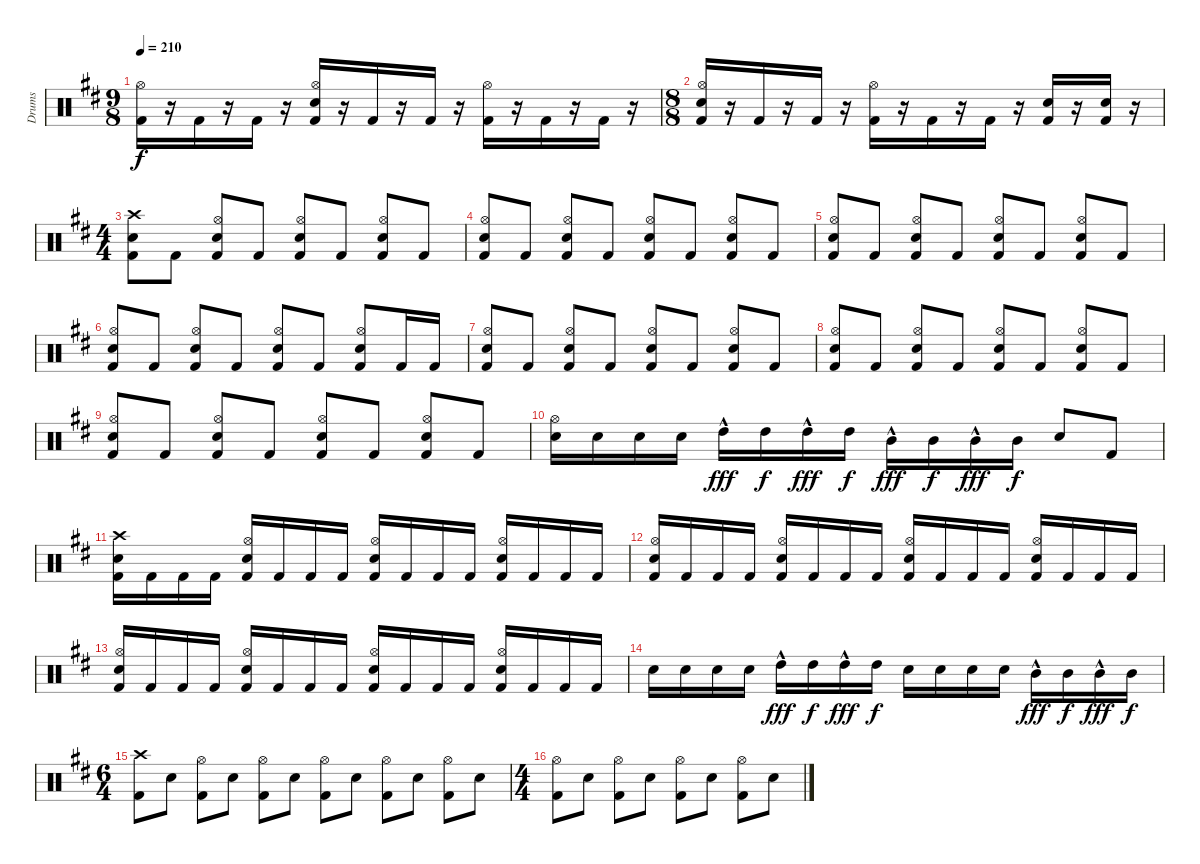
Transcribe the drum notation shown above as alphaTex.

\track ("Drums" "Drums") {instrument percussion}
\staff {score}
\articulation defaults
\ts (9 8)
\tempo 210
\clef neutral
\ks bminor
("Kick (hit) 2" "Hi-Hat (open)").16{dy f} r.16 "Kick (hit) 2".16 r.16 "Kick (hit) 2".16 r.16 ("Kick (hit) 2" "Electric Snare (hit)" "Hi-Hat (open)").16 r.16 "Kick (hit) 2".16 r.16 "Kick (hit) 2".16 r.16 ("Kick (hit) 2" "Hi-Hat (open)").16 r.16 "Kick (hit) 2".16 r.16 "Kick (hit) 2".16 r.16 |
\ts (8 8)
("Kick (hit) 2" "Electric Snare (hit)" "Hi-Hat (open)").16 r.16 "Kick (hit) 2".16 r.16 "Kick (hit) 2".16 r.16 ("Kick (hit) 2" "Hi-Hat (open)").16 r.16 "Kick (hit) 2".16 r.16 "Kick (hit) 2".16 r.16 ("Kick (hit) 2" "Electric Snare (hit)").16 r.16 ("Kick (hit) 2" "Electric Snare (hit)").16 r.16 |
\ts (4 4)
("Kick (hit) 2" "Electric Snare (hit)" "Crash high (hit)").8 "Kick (hit) 2".8 ("Kick (hit) 2" "Electric Snare (hit)" "Hi-Hat (open)").8 "Kick (hit) 2".8 ("Kick (hit) 2" "Electric Snare (hit)" "Hi-Hat (open)").8 "Kick (hit) 2".8 ("Kick (hit) 2" "Electric Snare (hit)" "Hi-Hat (open)").8 "Kick (hit) 2".8 |
("Kick (hit) 2" "Electric Snare (hit)" "Hi-Hat (open)").8 "Kick (hit) 2".8 ("Kick (hit) 2" "Electric Snare (hit)" "Hi-Hat (open)").8 "Kick (hit) 2".8 ("Kick (hit) 2" "Electric Snare (hit)" "Hi-Hat (open)").8 "Kick (hit) 2".8 ("Kick (hit) 2" "Electric Snare (hit)" "Hi-Hat (open)").8 "Kick (hit) 2".8 |
("Kick (hit) 2" "Electric Snare (hit)" "Hi-Hat (open)").8 "Kick (hit) 2".8 ("Kick (hit) 2" "Electric Snare (hit)" "Hi-Hat (open)").8 "Kick (hit) 2".8 ("Kick (hit) 2" "Electric Snare (hit)" "Hi-Hat (open)").8 "Kick (hit) 2".8 ("Kick (hit) 2" "Electric Snare (hit)" "Hi-Hat (open)").8 "Kick (hit) 2".8 |
("Kick (hit) 2" "Electric Snare (hit)" "Hi-Hat (open)").8 "Kick (hit) 2".8 ("Kick (hit) 2" "Electric Snare (hit)" "Hi-Hat (open)").8 "Kick (hit) 2".8 ("Kick (hit) 2" "Electric Snare (hit)" "Hi-Hat (open)").8 "Kick (hit) 2".8 ("Kick (hit) 2" "Electric Snare (hit)" "Hi-Hat (open)").8 "Kick (hit) 2".16 "Kick (hit) 2".16 |
("Kick (hit) 2" "Electric Snare (hit)" "Hi-Hat (open)").8 "Kick (hit) 2".8 ("Kick (hit) 2" "Electric Snare (hit)" "Hi-Hat (open)").8 "Kick (hit) 2".8 ("Kick (hit) 2" "Electric Snare (hit)" "Hi-Hat (open)").8 "Kick (hit) 2".8 ("Kick (hit) 2" "Electric Snare (hit)" "Hi-Hat (open)").8 "Kick (hit) 2".8 |
("Kick (hit) 2" "Electric Snare (hit)" "Hi-Hat (open)").8 "Kick (hit) 2".8 ("Kick (hit) 2" "Electric Snare (hit)" "Hi-Hat (open)").8 "Kick (hit) 2".8 ("Kick (hit) 2" "Electric Snare (hit)" "Hi-Hat (open)").8 "Kick (hit) 2".8 ("Kick (hit) 2" "Electric Snare (hit)" "Hi-Hat (open)").8 "Kick (hit) 2".8 |
("Kick (hit) 2" "Electric Snare (hit)" "Hi-Hat (open)").8 "Kick (hit) 2".8 ("Kick (hit) 2" "Electric Snare (hit)" "Hi-Hat (open)").8 "Kick (hit) 2".8 ("Kick (hit) 2" "Electric Snare (hit)" "Hi-Hat (open)").8 "Kick (hit) 2".8 ("Kick (hit) 2" "Electric Snare (hit)" "Hi-Hat (open)").8 "Kick (hit) 2".8 |
("Electric Snare (hit)" "Hi-Hat (open)").16 "Electric Snare (hit)".16 "Electric Snare (hit)".16 "Electric Snare (hit)".16 "High Tom (hit)"{hac}.16{dy fff} "High Tom (hit)".16{dy f} "High Tom (hit)"{hac}.16{dy fff} "High Tom (hit)".16{dy f} "Mid Tom (hit)"{hac}.16{dy fff} "Mid Tom (hit)".16{dy f} "Mid Tom (hit)"{hac}.16{dy fff} "Mid Tom (hit)".16{dy f} "Electric Snare (hit)".8 "Kick (hit) 2".8 |
("Kick (hit) 2" "Electric Snare (hit)" "Crash high (hit)").16 "Kick (hit) 2".16 "Kick (hit) 2".16 "Kick (hit) 2".16 ("Kick (hit) 2" "Electric Snare (hit)" "Hi-Hat (open)").16 "Kick (hit) 2".16 "Kick (hit) 2".16 "Kick (hit) 2".16 ("Kick (hit) 2" "Electric Snare (hit)" "Hi-Hat (open)").16 "Kick (hit) 2".16 "Kick (hit) 2".16 "Kick (hit) 2".16 ("Kick (hit) 2" "Electric Snare (hit)" "Hi-Hat (open)").16 "Kick (hit) 2".16 "Kick (hit) 2".16 "Kick (hit) 2".16 |
("Kick (hit) 2" "Electric Snare (hit)" "Hi-Hat (open)").16 "Kick (hit) 2".16 "Kick (hit) 2".16 "Kick (hit) 2".16 ("Kick (hit) 2" "Electric Snare (hit)" "Hi-Hat (open)").16 "Kick (hit) 2".16 "Kick (hit) 2".16 "Kick (hit) 2".16 ("Kick (hit) 2" "Electric Snare (hit)" "Hi-Hat (open)").16 "Kick (hit) 2".16 "Kick (hit) 2".16 "Kick (hit) 2".16 ("Kick (hit) 2" "Electric Snare (hit)" "Hi-Hat (open)").16 "Kick (hit) 2".16 "Kick (hit) 2".16 "Kick (hit) 2".16 |
("Kick (hit) 2" "Electric Snare (hit)" "Hi-Hat (open)").16 "Kick (hit) 2".16 "Kick (hit) 2".16 "Kick (hit) 2".16 ("Kick (hit) 2" "Electric Snare (hit)" "Hi-Hat (open)").16 "Kick (hit) 2".16 "Kick (hit) 2".16 "Kick (hit) 2".16 ("Kick (hit) 2" "Electric Snare (hit)" "Hi-Hat (open)").16 "Kick (hit) 2".16 "Kick (hit) 2".16 "Kick (hit) 2".16 ("Kick (hit) 2" "Electric Snare (hit)" "Hi-Hat (open)").16 "Kick (hit) 2".16 "Kick (hit) 2".16 "Kick (hit) 2".16 |
"Electric Snare (hit)".16 "Electric Snare (hit)".16 "Electric Snare (hit)".16 "Electric Snare (hit)".16 "High Tom (hit)"{hac}.16{dy fff} "High Tom (hit)".16{dy f} "High Tom (hit)"{hac}.16{dy fff} "High Tom (hit)".16{dy f} "Electric Snare (hit)".16 "Electric Snare (hit)".16 "Electric Snare (hit)".16 "Electric Snare (hit)".16 "Mid Tom (hit)"{hac}.16{dy fff} "Mid Tom (hit)".16{dy f} "Mid Tom (hit)"{hac}.16{dy fff} "Mid Tom (hit)".16{dy f} |
\ts (6 4)
("Kick (hit) 2" "Crash high (hit)").8 "Electric Snare (hit)".8 ("Kick (hit) 2" "Hi-Hat (open)").8 "Electric Snare (hit)".8 ("Kick (hit) 2" "Hi-Hat (open)").8 "Electric Snare (hit)".8 ("Kick (hit) 2" "Hi-Hat (open)").8 "Electric Snare (hit)".8 ("Kick (hit) 2" "Hi-Hat (open)").8 "Electric Snare (hit)".8 ("Kick (hit) 2" "Hi-Hat (open)").8 "Electric Snare (hit)".8 |
\ts (4 4)
("Kick (hit) 2" "Hi-Hat (open)").8 "Electric Snare (hit)".8 ("Kick (hit) 2" "Hi-Hat (open)").8 "Electric Snare (hit)".8 ("Kick (hit) 2" "Hi-Hat (open)").8 "Electric Snare (hit)".8 ("Kick (hit) 2" "Hi-Hat (open)").8 "Electric Snare (hit)".8
